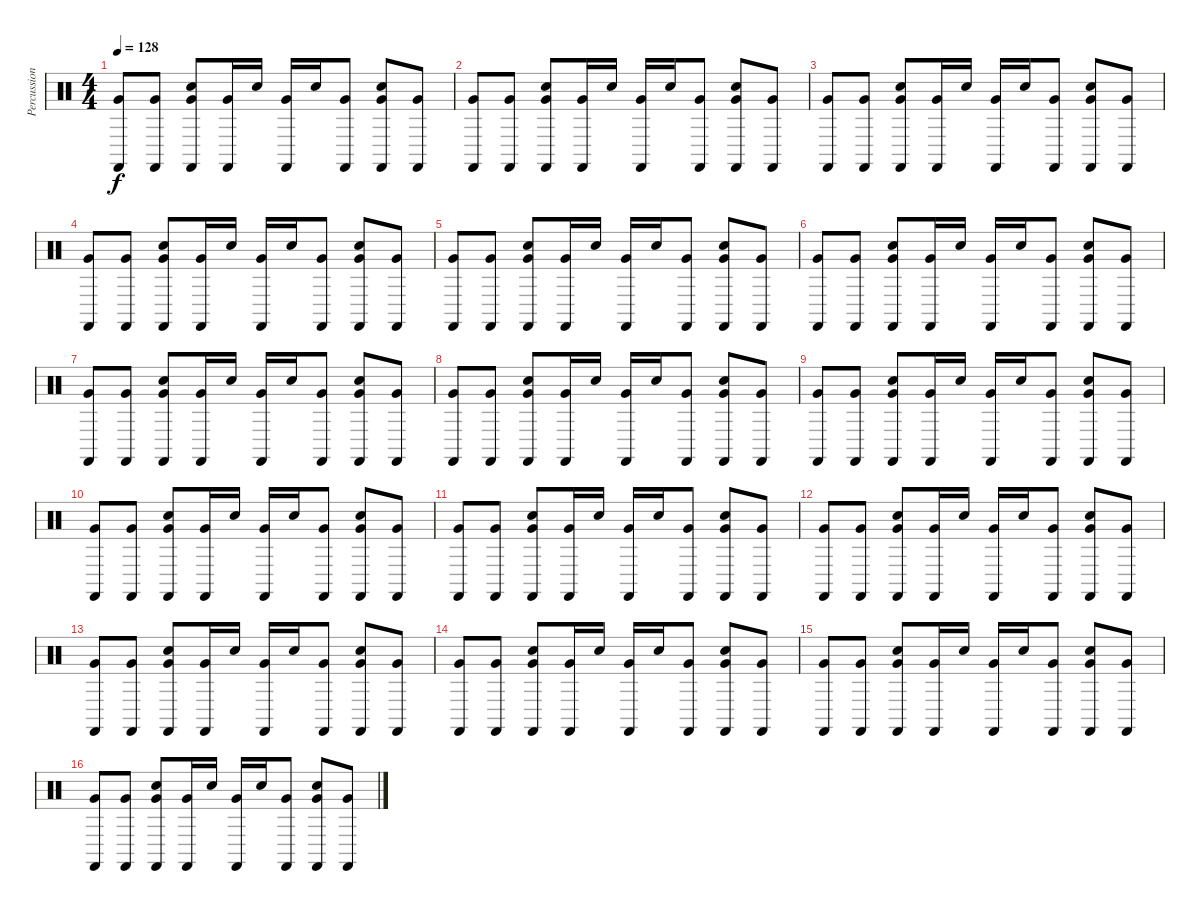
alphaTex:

\track ("Percussions" "Percussion") {instrument percussion}
\staff {score}
\articulation defaults
\ts (4 4)
\tempo 128
\clef neutral
\ks c
("Very Low Tom (hit)" "Castanets (hit)").8{dy f} ("Very Low Tom (hit)" "Castanets (hit)").8 ("Very Low Tom (hit)" "Snare (hit) 2" "Castanets (hit)").8 ("Very Low Tom (hit)" "Castanets (hit)").16 "Snare (hit) 2".16 ("Very Low Tom (hit)" "Castanets (hit)").16 "Snare (hit) 2".16 ("Very Low Tom (hit)" "Castanets (hit)").8 ("Very Low Tom (hit)" "Snare (hit) 2" "Castanets (hit)").8 ("Very Low Tom (hit)" "Castanets (hit)").8 |
("Very Low Tom (hit)" "Castanets (hit)").8 ("Very Low Tom (hit)" "Castanets (hit)").8 ("Very Low Tom (hit)" "Snare (hit) 2" "Castanets (hit)").8 ("Very Low Tom (hit)" "Castanets (hit)").16 "Snare (hit) 2".16 ("Very Low Tom (hit)" "Castanets (hit)").16 "Snare (hit) 2".16 ("Very Low Tom (hit)" "Castanets (hit)").8 ("Very Low Tom (hit)" "Snare (hit) 2" "Castanets (hit)").8 ("Very Low Tom (hit)" "Castanets (hit)").8 |
("Very Low Tom (hit)" "Castanets (hit)").8 ("Very Low Tom (hit)" "Castanets (hit)").8 ("Very Low Tom (hit)" "Snare (hit) 2" "Castanets (hit)").8 ("Very Low Tom (hit)" "Castanets (hit)").16 "Snare (hit) 2".16 ("Very Low Tom (hit)" "Castanets (hit)").16 "Snare (hit) 2".16 ("Very Low Tom (hit)" "Castanets (hit)").8 ("Very Low Tom (hit)" "Snare (hit) 2" "Castanets (hit)").8 ("Very Low Tom (hit)" "Castanets (hit)").8 |
("Very Low Tom (hit)" "Castanets (hit)").8 ("Very Low Tom (hit)" "Castanets (hit)").8 ("Very Low Tom (hit)" "Snare (hit) 2" "Castanets (hit)").8 ("Very Low Tom (hit)" "Castanets (hit)").16 "Snare (hit) 2".16 ("Very Low Tom (hit)" "Castanets (hit)").16 "Snare (hit) 2".16 ("Very Low Tom (hit)" "Castanets (hit)").8 ("Very Low Tom (hit)" "Snare (hit) 2" "Castanets (hit)").8 ("Very Low Tom (hit)" "Castanets (hit)").8 |
("Very Low Tom (hit)" "Castanets (hit)").8 ("Very Low Tom (hit)" "Castanets (hit)").8 ("Very Low Tom (hit)" "Snare (hit) 2" "Castanets (hit)").8 ("Very Low Tom (hit)" "Castanets (hit)").16 "Snare (hit) 2".16 ("Very Low Tom (hit)" "Castanets (hit)").16 "Snare (hit) 2".16 ("Very Low Tom (hit)" "Castanets (hit)").8 ("Very Low Tom (hit)" "Snare (hit) 2" "Castanets (hit)").8 ("Very Low Tom (hit)" "Castanets (hit)").8 |
("Very Low Tom (hit)" "Castanets (hit)").8 ("Very Low Tom (hit)" "Castanets (hit)").8 ("Very Low Tom (hit)" "Snare (hit) 2" "Castanets (hit)").8 ("Very Low Tom (hit)" "Castanets (hit)").16 "Snare (hit) 2".16 ("Very Low Tom (hit)" "Castanets (hit)").16 "Snare (hit) 2".16 ("Very Low Tom (hit)" "Castanets (hit)").8 ("Very Low Tom (hit)" "Snare (hit) 2" "Castanets (hit)").8 ("Very Low Tom (hit)" "Castanets (hit)").8 |
("Very Low Tom (hit)" "Castanets (hit)").8 ("Very Low Tom (hit)" "Castanets (hit)").8 ("Very Low Tom (hit)" "Snare (hit) 2" "Castanets (hit)").8 ("Very Low Tom (hit)" "Castanets (hit)").16 "Snare (hit) 2".16 ("Very Low Tom (hit)" "Castanets (hit)").16 "Snare (hit) 2".16 ("Very Low Tom (hit)" "Castanets (hit)").8 ("Very Low Tom (hit)" "Snare (hit) 2" "Castanets (hit)").8 ("Very Low Tom (hit)" "Castanets (hit)").8 |
("Very Low Tom (hit)" "Castanets (hit)").8 ("Very Low Tom (hit)" "Castanets (hit)").8 ("Very Low Tom (hit)" "Snare (hit) 2" "Castanets (hit)").8 ("Very Low Tom (hit)" "Castanets (hit)").16 "Snare (hit) 2".16 ("Very Low Tom (hit)" "Castanets (hit)").16 "Snare (hit) 2".16 ("Very Low Tom (hit)" "Castanets (hit)").8 ("Very Low Tom (hit)" "Snare (hit) 2" "Castanets (hit)").8 ("Very Low Tom (hit)" "Castanets (hit)").8 |
("Very Low Tom (hit)" "Castanets (hit)").8 ("Very Low Tom (hit)" "Castanets (hit)").8 ("Very Low Tom (hit)" "Snare (hit) 2" "Castanets (hit)").8 ("Very Low Tom (hit)" "Castanets (hit)").16 "Snare (hit) 2".16 ("Very Low Tom (hit)" "Castanets (hit)").16 "Snare (hit) 2".16 ("Very Low Tom (hit)" "Castanets (hit)").8 ("Very Low Tom (hit)" "Snare (hit) 2" "Castanets (hit)").8 ("Very Low Tom (hit)" "Castanets (hit)").8 |
("Very Low Tom (hit)" "Castanets (hit)").8 ("Very Low Tom (hit)" "Castanets (hit)").8 ("Very Low Tom (hit)" "Snare (hit) 2" "Castanets (hit)").8 ("Very Low Tom (hit)" "Castanets (hit)").16 "Snare (hit) 2".16 ("Very Low Tom (hit)" "Castanets (hit)").16 "Snare (hit) 2".16 ("Very Low Tom (hit)" "Castanets (hit)").8 ("Very Low Tom (hit)" "Snare (hit) 2" "Castanets (hit)").8 ("Very Low Tom (hit)" "Castanets (hit)").8 |
("Very Low Tom (hit)" "Castanets (hit)").8 ("Very Low Tom (hit)" "Castanets (hit)").8 ("Very Low Tom (hit)" "Snare (hit) 2" "Castanets (hit)").8 ("Very Low Tom (hit)" "Castanets (hit)").16 "Snare (hit) 2".16 ("Very Low Tom (hit)" "Castanets (hit)").16 "Snare (hit) 2".16 ("Very Low Tom (hit)" "Castanets (hit)").8 ("Very Low Tom (hit)" "Snare (hit) 2" "Castanets (hit)").8 ("Very Low Tom (hit)" "Castanets (hit)").8 |
("Very Low Tom (hit)" "Castanets (hit)").8 ("Very Low Tom (hit)" "Castanets (hit)").8 ("Very Low Tom (hit)" "Snare (hit) 2" "Castanets (hit)").8 ("Very Low Tom (hit)" "Castanets (hit)").16 "Snare (hit) 2".16 ("Very Low Tom (hit)" "Castanets (hit)").16 "Snare (hit) 2".16 ("Very Low Tom (hit)" "Castanets (hit)").8 ("Very Low Tom (hit)" "Snare (hit) 2" "Castanets (hit)").8 ("Very Low Tom (hit)" "Castanets (hit)").8 |
("Very Low Tom (hit)" "Castanets (hit)").8 ("Very Low Tom (hit)" "Castanets (hit)").8 ("Very Low Tom (hit)" "Snare (hit) 2" "Castanets (hit)").8 ("Very Low Tom (hit)" "Castanets (hit)").16 "Snare (hit) 2".16 ("Very Low Tom (hit)" "Castanets (hit)").16 "Snare (hit) 2".16 ("Very Low Tom (hit)" "Castanets (hit)").8 ("Very Low Tom (hit)" "Snare (hit) 2" "Castanets (hit)").8 ("Very Low Tom (hit)" "Castanets (hit)").8 |
("Very Low Tom (hit)" "Castanets (hit)").8 ("Very Low Tom (hit)" "Castanets (hit)").8 ("Very Low Tom (hit)" "Snare (hit) 2" "Castanets (hit)").8 ("Very Low Tom (hit)" "Castanets (hit)").16 "Snare (hit) 2".16 ("Very Low Tom (hit)" "Castanets (hit)").16 "Snare (hit) 2".16 ("Very Low Tom (hit)" "Castanets (hit)").8 ("Very Low Tom (hit)" "Snare (hit) 2" "Castanets (hit)").8 ("Very Low Tom (hit)" "Castanets (hit)").8 |
("Very Low Tom (hit)" "Castanets (hit)").8 ("Very Low Tom (hit)" "Castanets (hit)").8 ("Very Low Tom (hit)" "Snare (hit) 2" "Castanets (hit)").8 ("Very Low Tom (hit)" "Castanets (hit)").16 "Snare (hit) 2".16 ("Very Low Tom (hit)" "Castanets (hit)").16 "Snare (hit) 2".16 ("Very Low Tom (hit)" "Castanets (hit)").8 ("Very Low Tom (hit)" "Snare (hit) 2" "Castanets (hit)").8 ("Very Low Tom (hit)" "Castanets (hit)").8 |
("Very Low Tom (hit)" "Castanets (hit)").8 ("Very Low Tom (hit)" "Castanets (hit)").8 ("Very Low Tom (hit)" "Snare (hit) 2" "Castanets (hit)").8 ("Very Low Tom (hit)" "Castanets (hit)").16 "Snare (hit) 2".16 ("Very Low Tom (hit)" "Castanets (hit)").16 "Snare (hit) 2".16 ("Very Low Tom (hit)" "Castanets (hit)").8 ("Very Low Tom (hit)" "Snare (hit) 2" "Castanets (hit)").8 ("Very Low Tom (hit)" "Castanets (hit)").8
